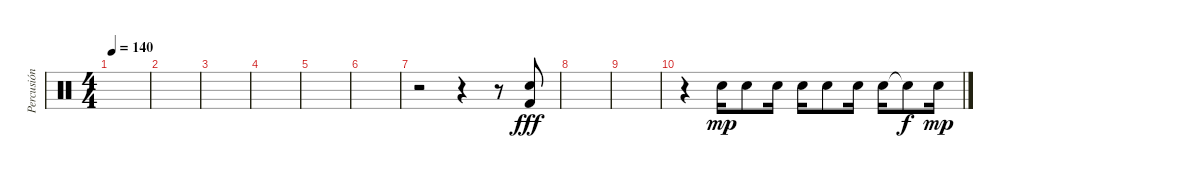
\track ("Percusión Fredy Caldas" "Percusión ") {instrument percussion}
\staff {score}
\articulation defaults
\ts (4 4)
\tempo 140
\clef neutral
\ks c
|
|
|
|
|
|
r.2 r.4 r.8 ("Kick (hit) 2" "Electric Snare (hit)").8{dy fff} |
|
|
r.4 "Snare (hit) 2".16{dy mp} "Snare (hit) 2".8 "Snare (hit) 2".16 "Snare (hit) 2".16 "Snare (hit) 2".8 "Snare (hit) 2".16 "Snare (hit) 2".16 "Snare (hit) 2"{t}.8{dy f} "Snare (hit) 2".16{dy mp}
